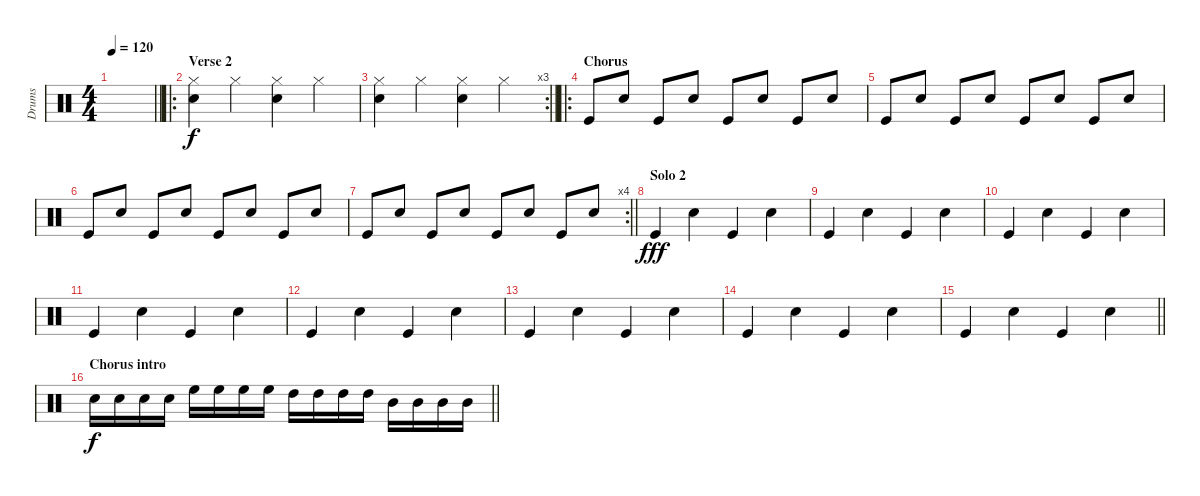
\track ("Drums" "Drums") {instrument percussion}
\staff {score}
\articulation defaults
\ts (4 4)
\tempo 120
\clef neutral
\barLineRight lightlight
\ks c
|
\ro
\section ("" "Verse 2")
("Hi-Hat (closed)" "Snare (hit) 2").4 "Hi-Hat (closed)".4 ("Hi-Hat (closed)" "Snare (hit) 2").4 "Hi-Hat (closed)".4 |
\rc 3
\barLineRight lightlight
("Hi-Hat (closed)" "Snare (hit) 2").4 "Hi-Hat (closed)".4 ("Hi-Hat (closed)" "Snare (hit) 2").4 "Hi-Hat (closed)".4 |
\ro
\section ("" "Chorus")
"Kick (hit)".8 "Snare (hit) 2".8 "Kick (hit)".8 "Snare (hit) 2".8 "Kick (hit)".8 "Snare (hit) 2".8 "Kick (hit)".8 "Snare (hit) 2".8 |
"Kick (hit)".8 "Snare (hit) 2".8 "Kick (hit)".8 "Snare (hit) 2".8 "Kick (hit)".8 "Snare (hit) 2".8 "Kick (hit)".8 "Snare (hit) 2".8 |
"Kick (hit)".8 "Snare (hit) 2".8 "Kick (hit)".8 "Snare (hit) 2".8 "Kick (hit)".8 "Snare (hit) 2".8 "Kick (hit)".8 "Snare (hit) 2".8 |
\rc 4
\barLineRight lightlight "Kick (hit)".8 "Snare (hit) 2".8 "Kick (hit)".8 "Snare (hit) 2".8 "Kick (hit)".8 "Snare (hit) 2".8 "Kick (hit)".8 "Snare (hit) 2".8
|
\section ("" "Solo 2")
"Kick (hit)".4{dy fff} "Snare (hit) 2".4 "Kick (hit)".4 "Snare (hit) 2".4 |
"Kick (hit)".4 "Snare (hit) 2".4 "Kick (hit)".4 "Snare (hit) 2".4 |
"Kick (hit)".4 "Snare (hit) 2".4 "Kick (hit)".4 "Snare (hit) 2".4 |
"Kick (hit)".4 "Snare (hit) 2".4 "Kick (hit)".4 "Snare (hit) 2".4 |
"Kick (hit)".4 "Snare (hit) 2".4 "Kick (hit)".4 "Snare (hit) 2".4 |
"Kick (hit)".4 "Snare (hit) 2".4 "Kick (hit)".4 "Snare (hit) 2".4 |
"Kick (hit)".4 "Snare (hit) 2".4 "Kick (hit)".4 "Snare (hit) 2".4 |
\barLineRight lightlight "Kick (hit)".4 "Snare (hit) 2".4 "Kick (hit)".4 "Snare (hit) 2".4
|
\section ("" "Chorus intro")
\barLineRight lightlight "Snare (hit) 2".16{dy f} "Snare (hit) 2".16 "Snare (hit) 2".16 "Snare (hit) 2".16 "High Floor Tom (hit)".16 "High Floor Tom (hit)".16 "High Floor Tom (hit)".16 "High Floor Tom (hit)".16 "High Tom (hit)".16 "High Tom (hit)".16 "High Tom (hit)".16 "High Tom (hit)".16 "Mid Tom (hit)".16 "Mid Tom (hit)".16 "Mid Tom (hit)".16 "Mid Tom (hit)".16
